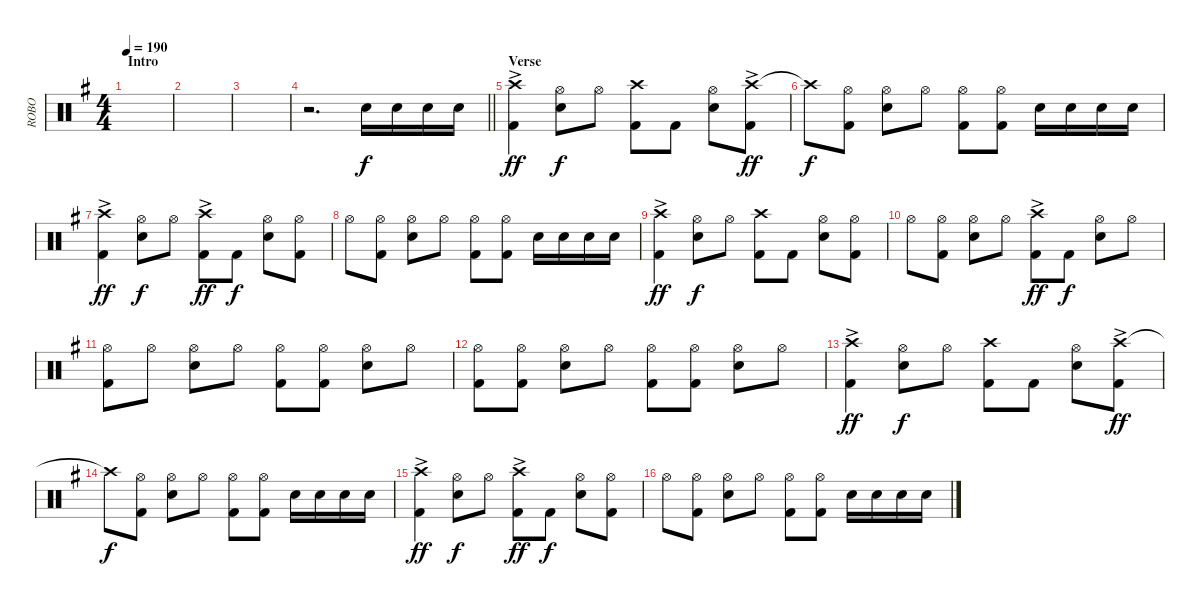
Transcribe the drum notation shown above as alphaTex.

\track ("ROBO" "ROBO") {instrument percussion}
\staff {score}
\articulation defaults
\ts (4 4)
\section ("" "Intro")
\tempo 190
\clef neutral
\ks eminor
|
|
|
\barLineRight lightlight
r.2{d} "Snare (hit) 2".16 "Snare (hit) 2".16 "Snare (hit) 2".16 "Snare (hit) 2".16 |
\section ("" "Verse")
("Crash high (hit)"{ac} "Kick (hit) 2").4{dy ff} ("Hi-Hat (open)" "Snare (hit) 2").8{dy f} "Hi-Hat (open)".8 ("Crash high (hit)" "Kick (hit) 2").8 "Kick (hit) 2".8 ("Hi-Hat (open)" "Snare (hit) 2").8 ("Crash high (hit)"{ac} "Kick (hit) 2").8{dy ff} |
"Crash high (hit)"{t}.8{dy f} ("Hi-Hat (open)" "Kick (hit) 2").8 ("Hi-Hat (open)" "Snare (hit) 2").8 "Hi-Hat (open)".8 ("Hi-Hat (open)" "Kick (hit) 2").8 ("Hi-Hat (open)" "Kick (hit) 2").8 "Snare (hit) 2".16 "Snare (hit) 2".16 "Snare (hit) 2".16 "Snare (hit) 2".16 |
("Crash high (hit)"{ac} "Kick (hit) 2").4{dy ff} ("Hi-Hat (open)" "Snare (hit) 2").8{dy f} "Hi-Hat (open)".8 ("Crash high (hit)"{ac} "Kick (hit) 2").8{dy ff} "Kick (hit) 2".8{dy f} ("Hi-Hat (open)" "Snare (hit) 2").8 ("Hi-Hat (open)" "Kick (hit) 2").8 |
"Hi-Hat (open)".8 ("Hi-Hat (open)" "Kick (hit) 2").8 ("Hi-Hat (open)" "Snare (hit) 2").8 "Hi-Hat (open)".8 ("Hi-Hat (open)" "Kick (hit) 2").8 ("Hi-Hat (open)" "Kick (hit) 2").8 "Snare (hit) 2".16 "Snare (hit) 2".16 "Snare (hit) 2".16 "Snare (hit) 2".16 |
("Crash high (hit)"{ac} "Kick (hit) 2").4{dy ff} ("Hi-Hat (open)" "Snare (hit) 2").8{dy f} "Hi-Hat (open)".8 ("Crash high (hit)" "Kick (hit) 2").8 "Kick (hit) 2".8 ("Hi-Hat (open)" "Snare (hit) 2").8 ("Hi-Hat (open)" "Kick (hit) 2").8 |
"Hi-Hat (open)".8 ("Hi-Hat (open)" "Kick (hit) 2").8 ("Hi-Hat (open)" "Snare (hit) 2").8 "Hi-Hat (open)".8 ("Crash high (hit)"{ac} "Kick (hit) 2").8{dy ff} "Kick (hit) 2".8{dy f} ("Hi-Hat (open)" "Snare (hit) 2").8 "Hi-Hat (open)".8 |
("Hi-Hat (open)" "Kick (hit) 2").8 "Hi-Hat (open)".8 ("Hi-Hat (open)" "Snare (hit) 2").8 "Hi-Hat (open)".8 ("Hi-Hat (open)" "Kick (hit) 2").8 ("Hi-Hat (open)" "Kick (hit) 2").8 ("Hi-Hat (open)" "Snare (hit) 2").8 "Hi-Hat (open)".8 |
("Hi-Hat (open)" "Kick (hit) 2").8 ("Hi-Hat (open)" "Kick (hit) 2").8 ("Hi-Hat (open)" "Snare (hit) 2").8 "Hi-Hat (open)".8 ("Hi-Hat (open)" "Kick (hit) 2").8 ("Hi-Hat (open)" "Kick (hit) 2").8 ("Hi-Hat (open)" "Snare (hit) 2").8 "Hi-Hat (open)".8 |
("Crash high (hit)"{ac} "Kick (hit) 2").4{dy ff} ("Hi-Hat (open)" "Snare (hit) 2").8{dy f} "Hi-Hat (open)".8 ("Crash high (hit)" "Kick (hit) 2").8 "Kick (hit) 2".8 ("Hi-Hat (open)" "Snare (hit) 2").8 ("Crash high (hit)"{ac} "Kick (hit) 2").8{dy ff} |
"Crash high (hit)"{t}.8{dy f} ("Hi-Hat (open)" "Kick (hit) 2").8 ("Hi-Hat (open)" "Snare (hit) 2").8 "Hi-Hat (open)".8 ("Hi-Hat (open)" "Kick (hit) 2").8 ("Hi-Hat (open)" "Kick (hit) 2").8 "Snare (hit) 2".16 "Snare (hit) 2".16 "Snare (hit) 2".16 "Snare (hit) 2".16 |
("Crash high (hit)"{ac} "Kick (hit) 2").4{dy ff} ("Hi-Hat (open)" "Snare (hit) 2").8{dy f} "Hi-Hat (open)".8 ("Crash high (hit)"{ac} "Kick (hit) 2").8{dy ff} "Kick (hit) 2".8{dy f} ("Hi-Hat (open)" "Snare (hit) 2").8 ("Hi-Hat (open)" "Kick (hit) 2").8 |
"Hi-Hat (open)".8 ("Hi-Hat (open)" "Kick (hit) 2").8 ("Hi-Hat (open)" "Snare (hit) 2").8 "Hi-Hat (open)".8 ("Hi-Hat (open)" "Kick (hit) 2").8 ("Hi-Hat (open)" "Kick (hit) 2").8 "Snare (hit) 2".16 "Snare (hit) 2".16 "Snare (hit) 2".16 "Snare (hit) 2".16
